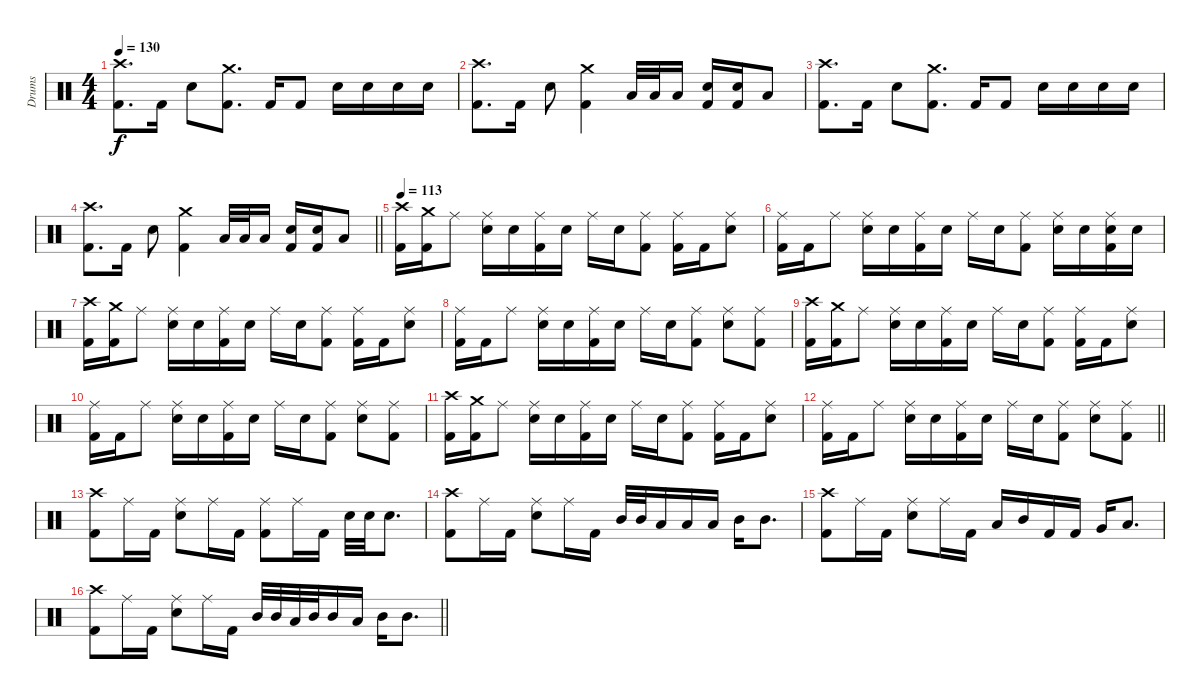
\track ("Drums" "Drums") {instrument percussion}
\staff {score}
\articulation defaults
\ts (4 4)
\tempo 130
\clef neutral
\ks c
("Crash high (hit)" "Kick (hit) 2").8{d dy f} "Kick (hit) 2".16 "Electric Snare (hit)".8 ("Crash medium (hit)" "Kick (hit) 2").8{d} "Kick (hit) 2".16 "Kick (hit) 2".8 "Electric Snare (hit)".16 "Electric Snare (hit)".16 "Electric Snare (hit)".16 "Electric Snare (hit)".16 |
("Crash high (hit)" "Kick (hit) 2").8{d} "Kick (hit) 2".16 "Electric Snare (hit)".8 ("Crash medium (hit)" "Kick (hit) 2").4 "Low Tom (hit)".32 "Low Tom (hit)".32 "Low Tom (hit)".16 ("Electric Snare (hit)" "Kick (hit) 2").16 ("Electric Snare (hit)" "Kick (hit) 2").16 "Low Tom (hit)".8 |
("Crash high (hit)" "Kick (hit) 2").8{d} "Kick (hit) 2".16 "Electric Snare (hit)".8 ("Crash medium (hit)" "Kick (hit) 2").8{d} "Kick (hit) 2".16 "Kick (hit) 2".8 "Electric Snare (hit)".16 "Electric Snare (hit)".16 "Electric Snare (hit)".16 "Electric Snare (hit)".16 |
\barLineRight lightlight
("Crash high (hit)" "Kick (hit) 2").8{d} "Kick (hit) 2".16 "Electric Snare (hit)".8 ("Crash medium (hit)" "Kick (hit) 2").4 "Low Tom (hit)".32 "Low Tom (hit)".32 "Low Tom (hit)".16 ("Electric Snare (hit)" "Kick (hit) 2").16 ("Electric Snare (hit)" "Kick (hit) 2").16 "Low Tom (hit)".8 |
\tempo 113
("Crash high (hit)" "Kick (hit) 2").16 ("Crash medium (hit)" "Kick (hit) 2").16 "Ride (middle)".8 ("Ride (middle)" "Electric Snare (hit)").16 "Electric Snare (hit)".16 ("Ride (middle)" "Kick (hit) 2").16 "Electric Snare (hit)".16 "Ride (middle)".16 "Electric Snare (hit)".16 ("Ride (middle)" "Kick (hit) 2").8 ("Ride (middle)" "Kick (hit) 2").16 "Kick (hit) 2".16 ("Ride (middle)" "Electric Snare (hit)").8 |
("Ride (middle)" "Kick (hit) 2").16 "Kick (hit) 2".16 "Ride (middle)".8 ("Ride (middle)" "Electric Snare (hit)").16 "Electric Snare (hit)".16 ("Ride (middle)" "Kick (hit) 2").16 "Electric Snare (hit)".16 "Ride (middle)".16 "Electric Snare (hit)".16 ("Ride (middle)" "Kick (hit) 2").8 ("Ride (middle)" "Electric Snare (hit)").16 "Electric Snare (hit)".16 ("Ride (middle)" "Electric Snare (hit)" "Kick (hit) 2").16 "Electric Snare (hit)".16 |
("Crash high (hit)" "Kick (hit) 2").16 ("Crash medium (hit)" "Kick (hit) 2").16 "Ride (middle)".8 ("Ride (middle)" "Electric Snare (hit)").16 "Electric Snare (hit)".16 ("Ride (middle)" "Kick (hit) 2").16 "Electric Snare (hit)".16 "Ride (middle)".16 "Electric Snare (hit)".16 ("Ride (middle)" "Kick (hit) 2").8 ("Ride (middle)" "Kick (hit) 2").16 "Kick (hit) 2".16 ("Ride (middle)" "Electric Snare (hit)").8 |
("Ride (middle)" "Kick (hit) 2").16 "Kick (hit) 2".16 "Ride (middle)".8 ("Ride (middle)" "Electric Snare (hit)").16 "Electric Snare (hit)".16 ("Ride (middle)" "Kick (hit) 2").16 "Electric Snare (hit)".16 "Ride (middle)".16 "Electric Snare (hit)".16 ("Ride (middle)" "Kick (hit) 2").8 ("Ride (middle)" "Electric Snare (hit)").8 ("Ride (middle)" "Kick (hit) 2").8 |
("Crash high (hit)" "Kick (hit) 2").16 ("Crash medium (hit)" "Kick (hit) 2").16 "Ride (middle)".8 ("Ride (middle)" "Electric Snare (hit)").16 "Electric Snare (hit)".16 ("Ride (middle)" "Kick (hit) 2").16 "Electric Snare (hit)".16 "Ride (middle)".16 "Electric Snare (hit)".16 ("Ride (middle)" "Kick (hit) 2").8 ("Ride (middle)" "Kick (hit) 2").16 "Kick (hit) 2".16 ("Ride (middle)" "Electric Snare (hit)").8 |
("Ride (middle)" "Kick (hit) 2").16 "Kick (hit) 2".16 "Ride (middle)".8 ("Ride (middle)" "Electric Snare (hit)").16 "Electric Snare (hit)".16 ("Ride (middle)" "Kick (hit) 2").16 "Electric Snare (hit)".16 "Ride (middle)".16 "Electric Snare (hit)".16 ("Ride (middle)" "Kick (hit) 2").8 ("Ride (middle)" "Electric Snare (hit)").8 ("Ride (middle)" "Kick (hit) 2").8 |
("Crash high (hit)" "Kick (hit) 2").16 ("Crash medium (hit)" "Kick (hit) 2").16 "Ride (middle)".8 ("Ride (middle)" "Electric Snare (hit)").16 "Electric Snare (hit)".16 ("Ride (middle)" "Kick (hit) 2").16 "Electric Snare (hit)".16 "Ride (middle)".16 "Electric Snare (hit)".16 ("Ride (middle)" "Kick (hit) 2").8 ("Ride (middle)" "Kick (hit) 2").16 "Kick (hit) 2".16 ("Ride (middle)" "Electric Snare (hit)").8 |
\barLineRight lightlight
("Ride (middle)" "Kick (hit) 2").16 "Kick (hit) 2".16 "Ride (middle)".8 ("Ride (middle)" "Electric Snare (hit)").16 "Electric Snare (hit)".16 ("Ride (middle)" "Kick (hit) 2").16 "Electric Snare (hit)".16 "Ride (middle)".16 "Electric Snare (hit)".16 ("Ride (middle)" "Kick (hit) 2").8 ("Ride (middle)" "Electric Snare (hit)").8 ("Ride (middle)" "Kick (hit) 2").8 |
("Crash high (hit)" "Kick (hit) 2").8 "Ride (middle)".16 "Kick (hit) 2".16 ("Ride (middle)" "Electric Snare (hit)").8 "Ride (middle)".16 "Kick (hit) 2".16 ("Ride (middle)" "Kick (hit) 2").8 "Ride (middle)".16 "Kick (hit) 2".16 "Electric Snare (hit)".32 "Electric Snare (hit)".32 "Electric Snare (hit)".8{d} |
("Crash high (hit)" "Kick (hit) 2").8 "Ride (middle)".16 "Kick (hit) 2".16 ("Ride (middle)" "Electric Snare (hit)").8 "Ride (middle)".16 "Kick (hit) 2".16 "Mid Tom (hit)".32 "Mid Tom (hit)".32 "Low Tom (hit)".16 "Low Tom (hit)".16 "Low Tom (hit)".16 "Mid Tom (hit)".16 "Mid Tom (hit)".8{d} |
("Crash high (hit)" "Kick (hit) 2").8 "Ride (middle)".16 "Kick (hit) 2".16 ("Ride (middle)" "Electric Snare (hit)").8 "Ride (middle)".16 "Kick (hit) 2".16 "Low Tom (hit)".16 "Mid Tom (hit)".16 "Kick (hit) 2".16 "Kick (hit) 2".16 "Very Low Tom (hit)".16 "Low Tom (hit)".8{d} |
\barLineRight lightlight
("Crash high (hit)" "Kick (hit) 2").8 "Ride (middle)".16 "Kick (hit) 2".16 ("Ride (middle)" "Electric Snare (hit)").8 "Ride (middle)".16 "Kick (hit) 2".16 "Mid Tom (hit)".32 "Mid Tom (hit)".32 "Low Tom (hit)".32 "Mid Tom (hit)".32 "Mid Tom (hit)".16 "Low Tom (hit)".16 "Mid Tom (hit)".16 "Mid Tom (hit)".8{d}
